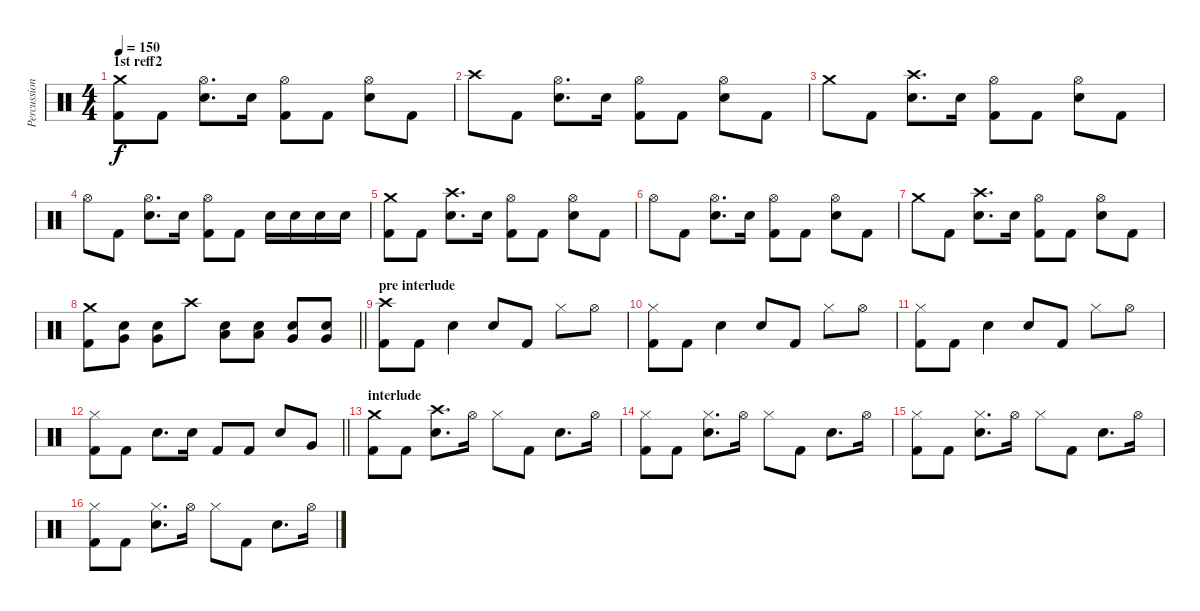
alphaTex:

\track ("Percussion" "Percussion") {instrument percussion}
\staff {score}
\articulation defaults
\ts (4 4)
\section ("" "1st reff2")
\tempo 150
\clef neutral
\ks c
("Crash medium (hit)" "Kick (hit) 2").8{dy f} "Kick (hit) 2".8 ("Hi-Hat (open)" "Electric Snare (hit)").8{d} "Electric Snare (hit)".16 ("Hi-Hat (open)" "Kick (hit) 2").8 "Kick (hit) 2".8 ("Hi-Hat (open)" "Electric Snare (hit)").8 "Kick (hit) 2".8 |
"Crash high (hit)".8 "Kick (hit) 2".8 ("Hi-Hat (open)" "Electric Snare (hit)").8{d} "Electric Snare (hit)".16 ("Hi-Hat (open)" "Kick (hit) 2").8 "Kick (hit) 2".8 ("Hi-Hat (open)" "Electric Snare (hit)").8 "Kick (hit) 2".8 |
"Crash medium (hit)".8 "Kick (hit) 2".8 ("Crash high (hit)" "Electric Snare (hit)").8{d} "Electric Snare (hit)".16 ("Hi-Hat (open)" "Kick (hit) 2").8 "Kick (hit) 2".8 ("Hi-Hat (open)" "Electric Snare (hit)").8 "Kick (hit) 2".8 |
"Hi-Hat (open)".8 "Kick (hit) 2".8 ("Hi-Hat (open)" "Electric Snare (hit)").8{d} "Electric Snare (hit)".16 ("Hi-Hat (open)" "Kick (hit) 2").8 "Kick (hit) 2".8 "Electric Snare (hit)".16 "Electric Snare (hit)".16 "Electric Snare (hit)".16 "Electric Snare (hit)".16 |
("Crash medium (hit)" "Kick (hit) 2").8 "Kick (hit) 2".8 ("Crash high (hit)" "Electric Snare (hit)").8{d} "Electric Snare (hit)".16 ("Hi-Hat (open)" "Kick (hit) 2").8 "Kick (hit) 2".8 ("Hi-Hat (open)" "Electric Snare (hit)").8 "Kick (hit) 2".8 |
"Hi-Hat (open)".8 "Kick (hit) 2".8 ("Hi-Hat (open)" "Electric Snare (hit)").8{d} "Electric Snare (hit)".16 ("Hi-Hat (open)" "Kick (hit) 2").8 "Kick (hit) 2".8 ("Hi-Hat (open)" "Electric Snare (hit)").8 "Kick (hit) 2".8 |
"Crash medium (hit)".8 "Kick (hit) 2".8 ("Crash high (hit)" "Electric Snare (hit)").8{d} "Electric Snare (hit)".16 ("Hi-Hat (open)" "Kick (hit) 2").8 "Kick (hit) 2".8 ("Hi-Hat (open)" "Electric Snare (hit)").8 "Kick (hit) 2".8 |
\barLineRight lightlight
("Crash medium (hit)" "Kick (hit) 2").8 ("Very Low Tom (hit)" "Electric Snare (hit)").8 ("Very Low Tom (hit)" "Electric Snare (hit)").8 "Crash high (hit)".8 ("Low Tom (hit)" "Electric Snare (hit)").8 ("Low Tom (hit)" "Electric Snare (hit)").8 ("Very Low Tom (hit)" "Electric Snare (hit)").8 ("Very Low Tom (hit)" "Electric Snare (hit)").8 |
\section ("" "pre interlude")
("Crash high (hit)" "Kick (hit) 2").8 "Kick (hit) 2".8 "Electric Snare (hit)".4 "Electric Snare (hit)".8 "Kick (hit) 2".8 "Hi-Hat (closed)".8 "Hi-Hat (open)".8 |
("Hi-Hat (closed)" "Kick (hit) 2").8 "Kick (hit) 2".8 "Electric Snare (hit)".4 "Electric Snare (hit)".8 "Kick (hit) 2".8 "Hi-Hat (closed)".8 "Hi-Hat (open)".8 |
("Hi-Hat (closed)" "Kick (hit) 2").8 "Kick (hit) 2".8 "Electric Snare (hit)".4 "Electric Snare (hit)".8 "Kick (hit) 2".8 "Hi-Hat (closed)".8 "Hi-Hat (open)".8 |
\barLineRight lightlight
("Hi-Hat (closed)" "Kick (hit) 2").8 "Kick (hit) 2".8 "Electric Snare (hit)".8{d} "Electric Snare (hit)".16 "Kick (hit) 2".8 "Kick (hit) 2".8 "Electric Snare (hit)".8 "Very Low Tom (hit)".8 |
\section ("" "interlude")
("Crash medium (hit)" "Kick (hit) 2").8 "Kick (hit) 2".8 ("Crash high (hit)" "Electric Snare (hit)").8{d} "Hi-Hat (open)".16 "Hi-Hat (closed)".8 "Kick (hit) 2".8 "Electric Snare (hit)".8{d} "Hi-Hat (open)".16 |
("Hi-Hat (closed)" "Kick (hit) 2").8 "Kick (hit) 2".8 ("Hi-Hat (closed)" "Electric Snare (hit)").8{d} "Hi-Hat (open)".16 "Hi-Hat (closed)".8 "Kick (hit) 2".8 "Electric Snare (hit)".8{d} "Hi-Hat (open)".16 |
("Hi-Hat (closed)" "Kick (hit) 2").8 "Kick (hit) 2".8 ("Hi-Hat (closed)" "Electric Snare (hit)").8{d} "Hi-Hat (open)".16 "Hi-Hat (closed)".8 "Kick (hit) 2".8 "Electric Snare (hit)".8{d} "Hi-Hat (open)".16 |
("Hi-Hat (closed)" "Kick (hit) 2").8 "Kick (hit) 2".8 ("Hi-Hat (closed)" "Electric Snare (hit)").8{d} "Hi-Hat (open)".16 "Hi-Hat (closed)".8 "Kick (hit) 2".8 "Electric Snare (hit)".8{d} "Hi-Hat (open)".16
